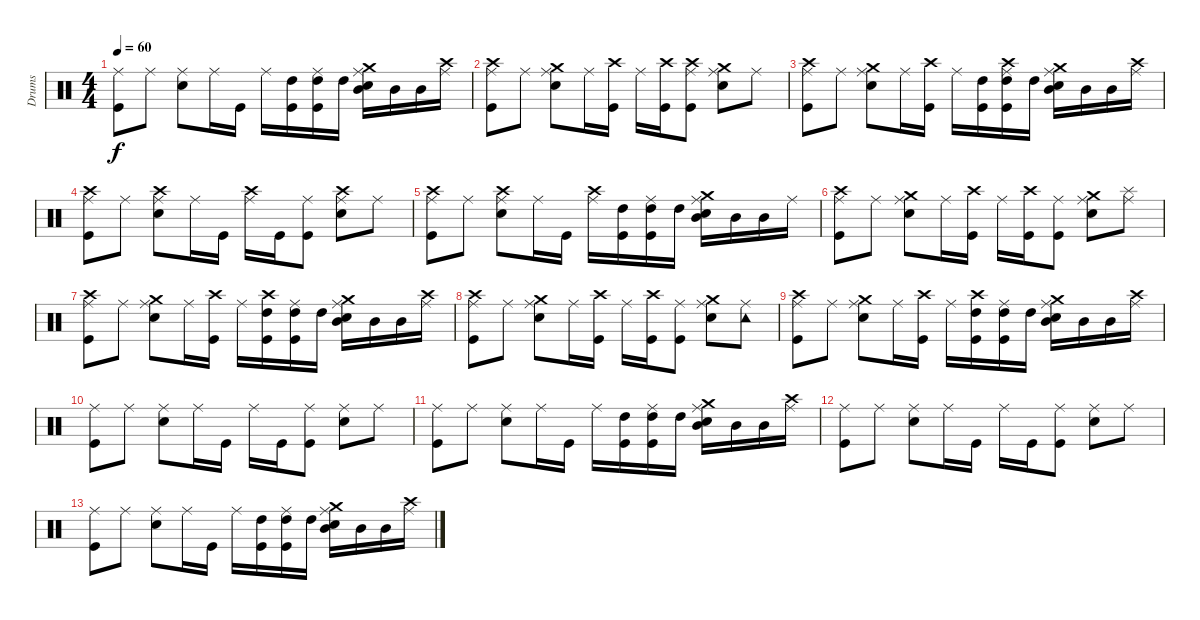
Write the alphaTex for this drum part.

\track ("Drums" "Drums") {instrument percussion}
\staff {score}
\articulation defaults
\ts (4 4)
\tempo 60
\clef neutral
\ks c
("Ride (middle)" "Kick (hit)").8{dy f} "Ride (middle)".8 ("Ride (middle)" "Snare (hit) 2").8 "Ride (middle)".16 "Kick (hit)".16 "Ride (middle)".16 ("Kick (hit)" "High Tom (hit)").16 ("Ride (middle)" "Kick (hit)" "High Tom (hit)").16 "High Tom (hit)".16 ("Ride (middle)" "Crash medium (hit)" "Snare (hit) 2" "Mid Tom (hit)").16 "Mid Tom (hit)".16 "Mid Tom (hit)".16 ("Ride (middle)" "Crash high (hit)").16 |
("Ride (middle)" "Crash high (hit)" "Kick (hit)").8 "Ride (middle)".8 ("Ride (middle)" "Crash medium (hit)" "Snare (hit) 2").8 "Ride (middle)".16 ("Crash high (hit)" "Kick (hit)").16 "Ride (middle)".16 ("Crash high (hit)" "Kick (hit)").16 ("Ride (middle)" "Crash high (hit)" "Kick (hit)").8 ("Ride (middle)" "Crash medium (hit)" "Snare (hit) 2").8 "Ride (middle)".8 |
("Ride (middle)" "Crash high (hit)" "Kick (hit)").8 "Ride (middle)".8 ("Ride (middle)" "Crash medium (hit)" "Snare (hit) 2").8 "Ride (middle)".16 ("Crash high (hit)" "Kick (hit)").16 "Ride (middle)".16 ("Kick (hit)" "High Tom (hit)").16 ("Ride (middle)" "Crash high (hit)" "Kick (hit)" "High Tom (hit)").16 "High Tom (hit)".16 ("Ride (middle)" "Crash medium (hit)" "Snare (hit) 2" "Mid Tom (hit)").16 "Mid Tom (hit)".16 "Mid Tom (hit)".16 ("Ride (middle)" "Crash high (hit)").16 |
("Ride (middle)" "Crash high (hit)" "Kick (hit)").8 "Ride (middle)".8 ("Ride (middle)" "Crash high (hit)" "Snare (hit) 2").8 "Ride (middle)".16 "Kick (hit)".16 ("Ride (middle)" "Crash high (hit)").16 "Kick (hit)".16 ("Ride (middle)" "Kick (hit)").8 ("Ride (middle)" "Crash high (hit)" "Snare (hit) 2").8 "Ride (middle)".8 |
("Ride (middle)" "Crash high (hit)" "Kick (hit)").8 "Ride (middle)".8 ("Ride (middle)" "Crash high (hit)" "Snare (hit) 2").8 "Ride (middle)".16 "Kick (hit)".16 ("Ride (middle)" "Crash high (hit)").16 ("Kick (hit)" "High Tom (hit)").16 ("Ride (middle)" "Kick (hit)" "High Tom (hit)").16 "High Tom (hit)".16 ("Ride (middle)" "Crash medium (hit)" "Snare (hit) 2" "Mid Tom (hit)").16 "Mid Tom (hit)".16 "Mid Tom (hit)".16 "Ride (middle)".16 |
("Ride (middle)" "Crash high (hit)" "Kick (hit)").8 "Ride (middle)".8 ("Ride (middle)" "Crash medium (hit)" "Snare (hit) 2").8 "Ride (middle)".16 ("Crash high (hit)" "Kick (hit)").16 "Ride (middle)".16 ("Crash high (hit)" "Kick (hit)").16 ("Ride (middle)" "Kick (hit)").8 ("Ride (middle)" "Crash medium (hit)" "Snare (hit) 2").8 ("Ride (middle)" "Splash (hit)").8 |
("Ride (middle)" "Crash high (hit)" "Kick (hit)").8 "Ride (middle)".8 ("Ride (middle)" "Crash medium (hit)" "Snare (hit) 2").8 "Ride (middle)".16 ("Crash high (hit)" "Kick (hit)").16 "Ride (middle)".16 ("Crash high (hit)" "Kick (hit)" "High Tom (hit)").16 ("Ride (middle)" "Kick (hit)" "High Tom (hit)").16 "High Tom (hit)".16 ("Ride (middle)" "Crash medium (hit)" "Snare (hit) 2" "Mid Tom (hit)").16 "Mid Tom (hit)".16 "Mid Tom (hit)".16 ("Ride (middle)" "Crash high (hit)").16 |
("Ride (middle)" "Crash high (hit)" "Kick (hit)").8 "Ride (middle)".8 ("Ride (middle)" "Crash medium (hit)" "Snare (hit) 2").8 "Ride (middle)".16 ("Crash high (hit)" "Kick (hit)").16 "Ride (middle)".16 ("Crash high (hit)" "Kick (hit)").16 ("Ride (middle)" "Kick (hit)").8 ("Ride (middle)" "Crash medium (hit)" "Snare (hit) 2").8 ("Ride (middle)" "Tambourine (hit)").8 |
("Ride (middle)" "Crash high (hit)" "Kick (hit)").8 "Ride (middle)".8 ("Ride (middle)" "Crash medium (hit)" "Snare (hit) 2").8 "Ride (middle)".16 ("Crash high (hit)" "Kick (hit)").16 "Ride (middle)".16 ("Crash high (hit)" "Kick (hit)" "High Tom (hit)").16 ("Ride (middle)" "Kick (hit)" "High Tom (hit)").16 "High Tom (hit)".16 ("Ride (middle)" "Crash medium (hit)" "Snare (hit) 2" "Mid Tom (hit)").16 "Mid Tom (hit)".16 "Mid Tom (hit)".16 ("Ride (middle)" "Crash high (hit)").16 |
("Ride (middle)" "Kick (hit)").8 "Ride (middle)".8 ("Ride (middle)" "Snare (hit) 2").8 "Ride (middle)".16 "Kick (hit)".16 "Ride (middle)".16 "Kick (hit)".16 ("Ride (middle)" "Kick (hit)").8 ("Ride (middle)" "Snare (hit) 2").8 "Ride (middle)".8 |
("Ride (middle)" "Kick (hit)").8 "Ride (middle)".8 ("Ride (middle)" "Snare (hit) 2").8 "Ride (middle)".16 "Kick (hit)".16 "Ride (middle)".16 ("Kick (hit)" "High Tom (hit)").16 ("Ride (middle)" "Kick (hit)" "High Tom (hit)").16 "High Tom (hit)".16 ("Ride (middle)" "Crash medium (hit)" "Snare (hit) 2" "Mid Tom (hit)").16 "Mid Tom (hit)".16 "Mid Tom (hit)".16 ("Ride (middle)" "Crash high (hit)").16 |
("Ride (middle)" "Kick (hit)").8 "Ride (middle)".8 ("Ride (middle)" "Snare (hit) 2").8 "Ride (middle)".16 "Kick (hit)".16 "Ride (middle)".16 "Kick (hit)".16 ("Ride (middle)" "Kick (hit)").8 ("Ride (middle)" "Snare (hit) 2").8 "Ride (middle)".8 |
("Ride (middle)" "Kick (hit)").8 "Ride (middle)".8 ("Ride (middle)" "Snare (hit) 2").8 "Ride (middle)".16 "Kick (hit)".16 "Ride (middle)".16 ("Kick (hit)" "High Tom (hit)").16 ("Ride (middle)" "Kick (hit)" "High Tom (hit)").16 "High Tom (hit)".16 ("Ride (middle)" "Crash medium (hit)" "Snare (hit) 2" "Mid Tom (hit)").16 "Mid Tom (hit)".16 "Mid Tom (hit)".16 ("Ride (middle)" "Crash high (hit)").16
